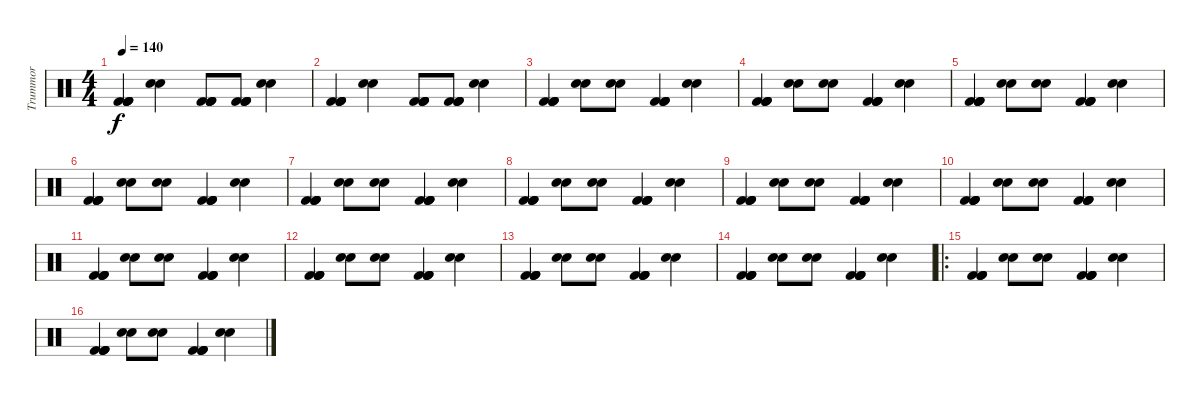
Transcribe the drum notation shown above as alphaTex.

\track ("Trummor" "Trummor") {instrument percussion}
\staff {score}
\articulation defaults
\ts (4 4)
\tempo 140
\clef neutral
\ks c
("Kick (hit) 2" "Kick (hit) 2" "Kick (hit) 2" "Kick (hit) 2").4{dy f} ("Hand Clap (hit)" "Electric Snare (hit)").4 ("Kick (hit) 2" "Kick (hit) 2" "Kick (hit) 2" "Kick (hit) 2").8 ("Kick (hit) 2" "Kick (hit) 2" "Kick (hit) 2" "Kick (hit) 2").8 ("Hand Clap (hit)" "Electric Snare (hit)").4 |
("Kick (hit) 2" "Kick (hit) 2" "Kick (hit) 2" "Kick (hit) 2").4 ("Hand Clap (hit)" "Electric Snare (hit)").4 ("Kick (hit) 2" "Kick (hit) 2" "Kick (hit) 2" "Kick (hit) 2").8 ("Kick (hit) 2" "Kick (hit) 2" "Kick (hit) 2" "Kick (hit) 2").8 ("Hand Clap (hit)" "Electric Snare (hit)").4 |
("Kick (hit) 2" "Kick (hit) 2" "Kick (hit) 2" "Kick (hit) 2").4 ("Hand Clap (hit)" "Electric Snare (hit)").8 ("Hand Clap (hit)" "Electric Snare (hit)").8 ("Kick (hit) 2" "Kick (hit) 2" "Kick (hit) 2" "Kick (hit) 2").4 ("Hand Clap (hit)" "Electric Snare (hit)").4 |
("Kick (hit) 2" "Kick (hit) 2" "Kick (hit) 2" "Kick (hit) 2").4 ("Hand Clap (hit)" "Electric Snare (hit)").8 ("Hand Clap (hit)" "Electric Snare (hit)").8 ("Kick (hit) 2" "Kick (hit) 2" "Kick (hit) 2" "Kick (hit) 2").4 ("Hand Clap (hit)" "Electric Snare (hit)").4 |
("Kick (hit) 2" "Kick (hit) 2" "Kick (hit) 2" "Kick (hit) 2").4 ("Hand Clap (hit)" "Electric Snare (hit)").8 ("Hand Clap (hit)" "Electric Snare (hit)").8 ("Kick (hit) 2" "Kick (hit) 2" "Kick (hit) 2" "Kick (hit) 2").4 ("Hand Clap (hit)" "Electric Snare (hit)").4 |
("Kick (hit) 2" "Kick (hit) 2" "Kick (hit) 2" "Kick (hit) 2").4 ("Hand Clap (hit)" "Electric Snare (hit)").8 ("Hand Clap (hit)" "Electric Snare (hit)").8 ("Kick (hit) 2" "Kick (hit) 2" "Kick (hit) 2" "Kick (hit) 2").4 ("Hand Clap (hit)" "Electric Snare (hit)").4 |
("Kick (hit) 2" "Kick (hit) 2" "Kick (hit) 2" "Kick (hit) 2").4 ("Hand Clap (hit)" "Electric Snare (hit)").8 ("Hand Clap (hit)" "Electric Snare (hit)").8 ("Kick (hit) 2" "Kick (hit) 2" "Kick (hit) 2" "Kick (hit) 2").4 ("Hand Clap (hit)" "Electric Snare (hit)").4 |
("Kick (hit) 2" "Kick (hit) 2" "Kick (hit) 2" "Kick (hit) 2").4 ("Hand Clap (hit)" "Electric Snare (hit)").8 ("Hand Clap (hit)" "Electric Snare (hit)").8 ("Kick (hit) 2" "Kick (hit) 2" "Kick (hit) 2" "Kick (hit) 2").4 ("Hand Clap (hit)" "Electric Snare (hit)").4 |
("Kick (hit) 2" "Kick (hit) 2" "Kick (hit) 2" "Kick (hit) 2").4 ("Hand Clap (hit)" "Electric Snare (hit)").8 ("Hand Clap (hit)" "Electric Snare (hit)").8 ("Kick (hit) 2" "Kick (hit) 2" "Kick (hit) 2" "Kick (hit) 2").4 ("Hand Clap (hit)" "Electric Snare (hit)").4 |
("Kick (hit) 2" "Kick (hit) 2" "Kick (hit) 2" "Kick (hit) 2").4 ("Hand Clap (hit)" "Electric Snare (hit)").8 ("Hand Clap (hit)" "Electric Snare (hit)").8 ("Kick (hit) 2" "Kick (hit) 2" "Kick (hit) 2" "Kick (hit) 2").4 ("Hand Clap (hit)" "Electric Snare (hit)").4 |
("Kick (hit) 2" "Kick (hit) 2" "Kick (hit) 2" "Kick (hit) 2").4 ("Hand Clap (hit)" "Electric Snare (hit)").8 ("Hand Clap (hit)" "Electric Snare (hit)").8 ("Kick (hit) 2" "Kick (hit) 2" "Kick (hit) 2" "Kick (hit) 2").4 ("Hand Clap (hit)" "Electric Snare (hit)").4 |
("Kick (hit) 2" "Kick (hit) 2" "Kick (hit) 2" "Kick (hit) 2").4 ("Hand Clap (hit)" "Electric Snare (hit)").8 ("Hand Clap (hit)" "Electric Snare (hit)").8 ("Kick (hit) 2" "Kick (hit) 2" "Kick (hit) 2" "Kick (hit) 2").4 ("Hand Clap (hit)" "Electric Snare (hit)").4 |
("Kick (hit) 2" "Kick (hit) 2" "Kick (hit) 2" "Kick (hit) 2").4 ("Hand Clap (hit)" "Electric Snare (hit)").8 ("Hand Clap (hit)" "Electric Snare (hit)").8 ("Kick (hit) 2" "Kick (hit) 2" "Kick (hit) 2" "Kick (hit) 2").4 ("Hand Clap (hit)" "Electric Snare (hit)").4 |
("Kick (hit) 2" "Kick (hit) 2" "Kick (hit) 2" "Kick (hit) 2").4 ("Hand Clap (hit)" "Electric Snare (hit)").8 ("Hand Clap (hit)" "Electric Snare (hit)").8 ("Kick (hit) 2" "Kick (hit) 2" "Kick (hit) 2" "Kick (hit) 2").4 ("Hand Clap (hit)" "Electric Snare (hit)").4 |
\ro
("Kick (hit) 2" "Kick (hit) 2" "Kick (hit) 2" "Kick (hit) 2").4 ("Hand Clap (hit)" "Electric Snare (hit)").8 ("Hand Clap (hit)" "Electric Snare (hit)").8 ("Kick (hit) 2" "Kick (hit) 2" "Kick (hit) 2" "Kick (hit) 2").4 ("Hand Clap (hit)" "Electric Snare (hit)").4 |
("Kick (hit) 2" "Kick (hit) 2" "Kick (hit) 2" "Kick (hit) 2").4 ("Hand Clap (hit)" "Electric Snare (hit)").8 ("Hand Clap (hit)" "Electric Snare (hit)").8 ("Kick (hit) 2" "Kick (hit) 2" "Kick (hit) 2" "Kick (hit) 2").4 ("Hand Clap (hit)" "Electric Snare (hit)").4
